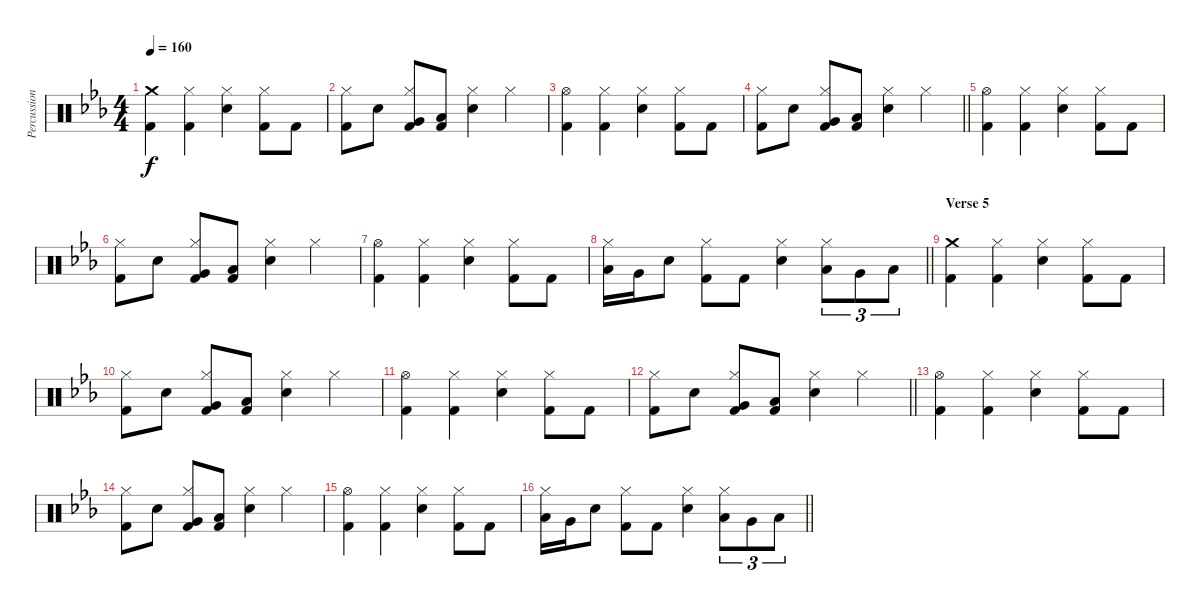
\track ("Percussion" "Percussion") {instrument percussion}
\staff {score}
\articulation defaults
\ts (4 4)
\section ("" "")
\tempo 160
\clef neutral
\ks eb
("Crash medium (hit)" "Kick (hit) 2").4{dy f} ("Hi-Hat (closed)" "Kick (hit) 2").4 ("Hi-Hat (closed)" "Snare (hit) 2").4 ("Hi-Hat (closed)" "Kick (hit) 2").8 "Kick (hit) 2".8 |
("Hi-Hat (closed)" "Kick (hit) 2").8 "Snare (hit) 2".8 ("Hi-Hat (closed)" "Very Low Tom (hit)" "Kick (hit) 2").8 ("Low Floor Tom (hit)" "Kick (hit) 2").8 ("Hi-Hat (closed)" "Snare (hit) 2").4 "Hi-Hat (closed)".4 |
("Hi-Hat (open)" "Kick (hit) 2").4 ("Hi-Hat (closed)" "Kick (hit) 2").4 ("Hi-Hat (closed)" "Snare (hit) 2").4 ("Hi-Hat (closed)" "Kick (hit) 2").8 "Kick (hit) 2".8 |
\barLineRight lightlight
("Hi-Hat (closed)" "Kick (hit) 2").8 "Snare (hit) 2".8 ("Hi-Hat (closed)" "Very Low Tom (hit)" "Kick (hit) 2").8 ("Low Floor Tom (hit)" "Kick (hit) 2").8 ("Hi-Hat (closed)" "Snare (hit) 2").4 "Hi-Hat (closed)".4 |
\section ("" "")
("Hi-Hat (open)" "Kick (hit) 2").4 ("Hi-Hat (closed)" "Kick (hit) 2").4 ("Hi-Hat (closed)" "Snare (hit) 2").4 ("Hi-Hat (closed)" "Kick (hit) 2").8 "Kick (hit) 2".8 |
("Hi-Hat (closed)" "Kick (hit) 2").8 "Snare (hit) 2".8 ("Hi-Hat (closed)" "Very Low Tom (hit)" "Kick (hit) 2").8 ("Low Floor Tom (hit)" "Kick (hit) 2").8 ("Hi-Hat (closed)" "Snare (hit) 2").4 "Hi-Hat (closed)".4 |
("Hi-Hat (open)" "Kick (hit) 2").4 ("Hi-Hat (closed)" "Kick (hit) 2").4 ("Hi-Hat (closed)" "Snare (hit) 2").4 ("Hi-Hat (closed)" "Kick (hit) 2").8 "Kick (hit) 2".8 |
\barLineRight lightlight
("Hi-Hat (closed)" "Low Floor Tom (hit)").16 "Very Low Tom (hit)".16 "Snare (hit) 2".8 ("Hi-Hat (closed)" "Kick (hit) 2").8 "Kick (hit) 2".8 ("Hi-Hat (closed)" "Snare (hit) 2").4 ("Hi-Hat (closed)" "Low Tom (hit)").8{tu (3 2)} "Very Low Tom (hit)".8{tu (3 2)} "Low Floor Tom (hit)".8{tu (3 2)} |
\section ("" "Verse 5")
("Crash medium (hit)" "Kick (hit) 2").4 ("Hi-Hat (closed)" "Kick (hit) 2").4 ("Hi-Hat (closed)" "Snare (hit) 2").4 ("Hi-Hat (closed)" "Kick (hit) 2").8 "Kick (hit) 2".8 |
("Hi-Hat (closed)" "Kick (hit) 2").8 "Snare (hit) 2".8 ("Hi-Hat (closed)" "Very Low Tom (hit)" "Kick (hit) 2").8 ("Low Floor Tom (hit)" "Kick (hit) 2").8 ("Hi-Hat (closed)" "Snare (hit) 2").4 "Hi-Hat (closed)".4 |
("Hi-Hat (open)" "Kick (hit) 2").4 ("Hi-Hat (closed)" "Kick (hit) 2").4 ("Hi-Hat (closed)" "Snare (hit) 2").4 ("Hi-Hat (closed)" "Kick (hit) 2").8 "Kick (hit) 2".8 |
\barLineRight lightlight
("Hi-Hat (closed)" "Kick (hit) 2").8 "Snare (hit) 2".8 ("Hi-Hat (closed)" "Very Low Tom (hit)" "Kick (hit) 2").8 ("Low Floor Tom (hit)" "Kick (hit) 2").8 ("Hi-Hat (closed)" "Snare (hit) 2").4 "Hi-Hat (closed)".4 |
\section ("" "")
("Hi-Hat (open)" "Kick (hit) 2").4 ("Hi-Hat (closed)" "Kick (hit) 2").4 ("Hi-Hat (closed)" "Snare (hit) 2").4 ("Hi-Hat (closed)" "Kick (hit) 2").8 "Kick (hit) 2".8 |
("Hi-Hat (closed)" "Kick (hit) 2").8 "Snare (hit) 2".8 ("Hi-Hat (closed)" "Very Low Tom (hit)" "Kick (hit) 2").8 ("Low Floor Tom (hit)" "Kick (hit) 2").8 ("Hi-Hat (closed)" "Snare (hit) 2").4 "Hi-Hat (closed)".4 |
("Hi-Hat (open)" "Kick (hit) 2").4 ("Hi-Hat (closed)" "Kick (hit) 2").4 ("Hi-Hat (closed)" "Snare (hit) 2").4 ("Hi-Hat (closed)" "Kick (hit) 2").8 "Kick (hit) 2".8 |
\barLineRight lightlight
("Hi-Hat (closed)" "Low Floor Tom (hit)").16 "Very Low Tom (hit)".16 "Snare (hit) 2".8 ("Hi-Hat (closed)" "Kick (hit) 2").8 "Kick (hit) 2".8 ("Hi-Hat (closed)" "Snare (hit) 2").4 ("Hi-Hat (closed)" "Low Tom (hit)").8{tu (3 2)} "Very Low Tom (hit)".8{tu (3 2)} "Low Floor Tom (hit)".8{tu (3 2)}
